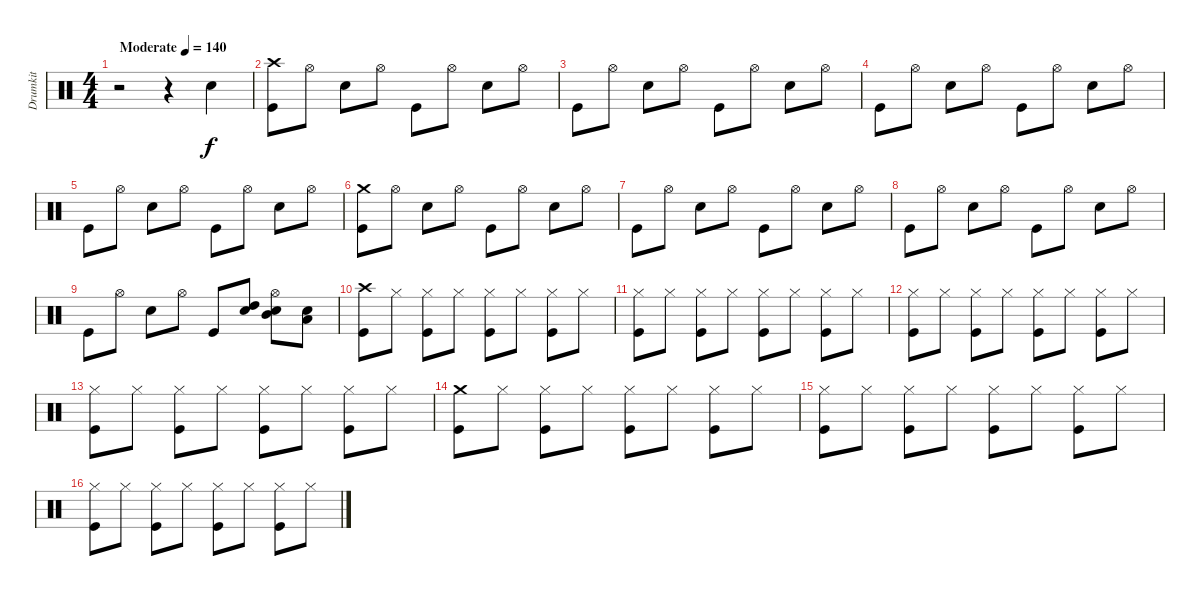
\track ("Drumkit" "Drumkit") {instrument percussion}
\staff {score}
\articulation defaults
\ts (4 4)
\tempo (140 "Moderate")
\clef neutral
\ks c
r.2{dy f} r.4 "Snare (hit) 2".4 |
("Crash high (hit)" "Kick (hit)").8 "Hi-Hat (open)".8 "Snare (hit) 2".8 "Hi-Hat (open)".8 "Kick (hit)".8 "Hi-Hat (open)".8 "Snare (hit) 2".8 "Hi-Hat (open)".8 |
"Kick (hit)".8 "Hi-Hat (open)".8 "Snare (hit) 2".8 "Hi-Hat (open)".8 "Kick (hit)".8 "Hi-Hat (open)".8 "Snare (hit) 2".8 "Hi-Hat (open)".8 |
"Kick (hit)".8 "Hi-Hat (open)".8 "Snare (hit) 2".8 "Hi-Hat (open)".8 "Kick (hit)".8 "Hi-Hat (open)".8 "Snare (hit) 2".8 "Hi-Hat (open)".8 |
"Kick (hit)".8 "Hi-Hat (open)".8 "Snare (hit) 2".8 "Hi-Hat (open)".8 "Kick (hit)".8 "Hi-Hat (open)".8 "Snare (hit) 2".8 "Hi-Hat (open)".8 |
("Crash medium (hit)" "Kick (hit)").8 "Hi-Hat (open)".8 "Snare (hit) 2".8 "Hi-Hat (open)".8 "Kick (hit)".8 "Hi-Hat (open)".8 "Snare (hit) 2".8 "Hi-Hat (open)".8 |
"Kick (hit)".8 "Hi-Hat (open)".8 "Snare (hit) 2".8 "Hi-Hat (open)".8 "Kick (hit)".8 "Hi-Hat (open)".8 "Snare (hit) 2".8 "Hi-Hat (open)".8 |
"Kick (hit)".8 "Hi-Hat (open)".8 "Snare (hit) 2".8 "Hi-Hat (open)".8 "Kick (hit)".8 "Hi-Hat (open)".8 "Snare (hit) 2".8 "Hi-Hat (open)".8 |
"Kick (hit)".8 "Hi-Hat (open)".8 "Snare (hit) 2".8 "Hi-Hat (open)".8 "Kick (hit)".8 ("High Tom (hit)" "Snare (hit) 2").8 ("Hi-Hat (open)" "Mid Tom (hit)" "Snare (hit) 2").8 ("Low Tom (hit)" "Snare (hit) 2").8 |
("Crash high (hit)" "Kick (hit)").8 "Hi-Hat (closed)".8 ("Hi-Hat (closed)" "Kick (hit)").8 "Hi-Hat (closed)".8 ("Hi-Hat (closed)" "Kick (hit)").8 "Hi-Hat (closed)".8 ("Hi-Hat (closed)" "Kick (hit)").8 "Hi-Hat (closed)".8 |
("Hi-Hat (closed)" "Kick (hit)").8 "Hi-Hat (closed)".8 ("Hi-Hat (closed)" "Kick (hit)").8 "Hi-Hat (closed)".8 ("Hi-Hat (closed)" "Kick (hit)").8 "Hi-Hat (closed)".8 ("Hi-Hat (closed)" "Kick (hit)").8 "Hi-Hat (closed)".8 |
("Hi-Hat (closed)" "Kick (hit)").8 "Hi-Hat (closed)".8 ("Hi-Hat (closed)" "Kick (hit)").8 "Hi-Hat (closed)".8 ("Hi-Hat (closed)" "Kick (hit)").8 "Hi-Hat (closed)".8 ("Hi-Hat (closed)" "Kick (hit)").8 "Hi-Hat (closed)".8 |
("Hi-Hat (closed)" "Kick (hit)").8 "Hi-Hat (closed)".8 ("Hi-Hat (closed)" "Kick (hit)").8 "Hi-Hat (closed)".8 ("Hi-Hat (closed)" "Kick (hit)").8 "Hi-Hat (closed)".8 ("Hi-Hat (closed)" "Kick (hit)").8 "Hi-Hat (closed)".8 |
("Crash medium (hit)" "Kick (hit)").8 "Hi-Hat (closed)".8 ("Hi-Hat (closed)" "Kick (hit)").8 "Hi-Hat (closed)".8 ("Hi-Hat (closed)" "Kick (hit)").8 "Hi-Hat (closed)".8 ("Hi-Hat (closed)" "Kick (hit)").8 "Hi-Hat (closed)".8 |
("Hi-Hat (closed)" "Kick (hit)").8 "Hi-Hat (closed)".8 ("Hi-Hat (closed)" "Kick (hit)").8 "Hi-Hat (closed)".8 ("Hi-Hat (closed)" "Kick (hit)").8 "Hi-Hat (closed)".8 ("Hi-Hat (closed)" "Kick (hit)").8 "Hi-Hat (closed)".8 |
("Hi-Hat (closed)" "Kick (hit)").8 "Hi-Hat (closed)".8 ("Hi-Hat (closed)" "Kick (hit)").8 "Hi-Hat (closed)".8 ("Hi-Hat (closed)" "Kick (hit)").8 "Hi-Hat (closed)".8 ("Hi-Hat (closed)" "Kick (hit)").8 "Hi-Hat (closed)".8
